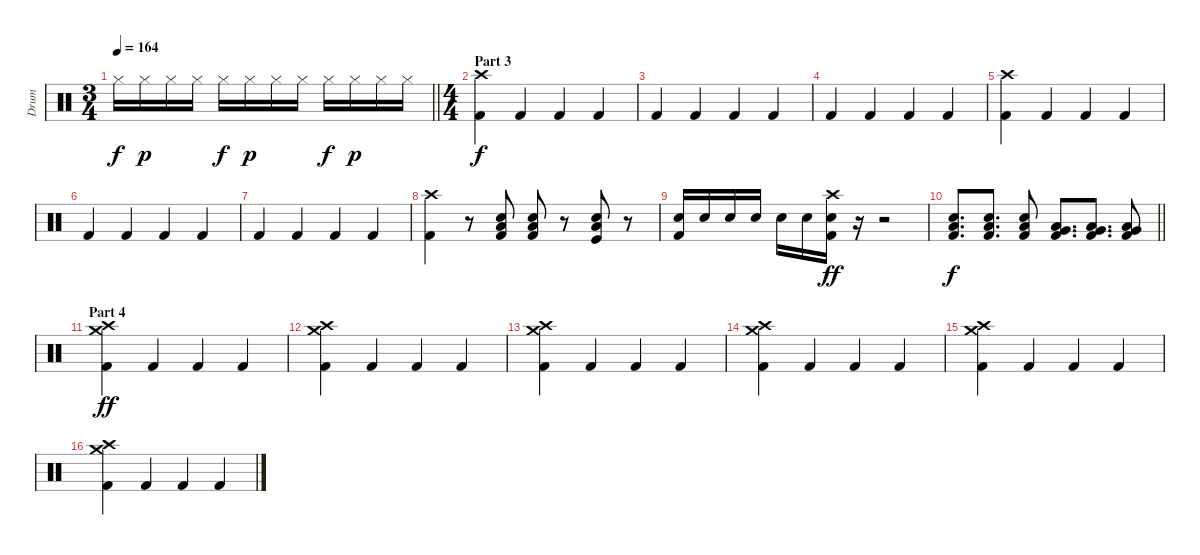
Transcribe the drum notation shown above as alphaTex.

\track ("Drum" "Drum") {instrument percussion}
\staff {score}
\articulation defaults
\ts (3 4)
\tempo 164
\clef neutral
\barLineRight lightlight
\ks c "Hi-Hat (closed)".16{dy f} "Hi-Hat (closed)".16{dy p} "Hi-Hat (closed)".16 "Hi-Hat (closed)".16 "Hi-Hat (closed)".16{dy f} "Hi-Hat (closed)".16{dy p} "Hi-Hat (closed)".16 "Hi-Hat (closed)".16 "Hi-Hat (closed)".16{dy f} "Hi-Hat (closed)".16{dy p} "Hi-Hat (closed)".16 "Hi-Hat (closed)".16
|
\ts (4 4)
\section ("" "Part 3")
("Crash high (hit)" "Kick (hit) 2").4{dy f} "Kick (hit) 2".4 "Kick (hit) 2".4 "Kick (hit) 2".4 |
"Kick (hit) 2".4 "Kick (hit) 2".4 "Kick (hit) 2".4 "Kick (hit) 2".4 |
"Kick (hit) 2".4 "Kick (hit) 2".4 "Kick (hit) 2".4 "Kick (hit) 2".4 |
("Crash high (hit)" "Kick (hit) 2").4 "Kick (hit) 2".4 "Kick (hit) 2".4 "Kick (hit) 2".4 |
"Kick (hit) 2".4 "Kick (hit) 2".4 "Kick (hit) 2".4 "Kick (hit) 2".4 |
"Kick (hit) 2".4 "Kick (hit) 2".4 "Kick (hit) 2".4 "Kick (hit) 2".4 |
("Crash high (hit)" "Kick (hit) 2").4 r.8 ("Low Tom (hit)" "Electric Snare (hit)" "Kick (hit) 2").8 ("Low Tom (hit)" "Electric Snare (hit)" "Kick (hit) 2").8 r.8 ("Low Tom (hit)" "Electric Snare (hit)" "Kick (hit)").8 r.8 |
("Electric Snare (hit)" "Kick (hit) 2").16 "Electric Snare (hit)".16 "Electric Snare (hit)".16 "Electric Snare (hit)".16 "Electric Snare (hit)".16 "Electric Snare (hit)".16 ("Crash high (hit)" "Electric Snare (hit)" "Kick (hit) 2").16{dy ff} r.16 r.2 |
\barLineRight lightlight
("Low Tom (hit)" "Electric Snare (hit)" "Kick (hit) 2").8{d dy f} ("Low Tom (hit)" "Electric Snare (hit)" "Kick (hit) 2").8{d} ("Low Tom (hit)" "Electric Snare (hit)" "Kick (hit) 2").8 ("Very Low Tom (hit)" "Low Tom (hit)" "Kick (hit) 2").8{d} ("Very Low Tom (hit)" "Low Tom (hit)" "Kick (hit) 2").8{d} ("Very Low Tom (hit)" "Low Tom (hit)" "Kick (hit) 2").8 |
\section ("" "Part 4")
("Crash high (hit)" "Crash medium (hit)" "Kick (hit) 2").4{dy ff} "Kick (hit) 2".4 "Kick (hit) 2".4 "Kick (hit) 2".4 |
("Crash high (hit)" "Crash medium (hit)" "Kick (hit) 2").4 "Kick (hit) 2".4 "Kick (hit) 2".4 "Kick (hit) 2".4 |
("Crash high (hit)" "Crash medium (hit)" "Kick (hit) 2").4 "Kick (hit) 2".4 "Kick (hit) 2".4 "Kick (hit) 2".4 |
("Crash high (hit)" "Crash medium (hit)" "Kick (hit) 2").4 "Kick (hit) 2".4 "Kick (hit) 2".4 "Kick (hit) 2".4 |
("Crash high (hit)" "Crash medium (hit)" "Kick (hit) 2").4 "Kick (hit) 2".4 "Kick (hit) 2".4 "Kick (hit) 2".4 |
("Crash high (hit)" "Crash medium (hit)" "Kick (hit) 2").4 "Kick (hit) 2".4 "Kick (hit) 2".4 "Kick (hit) 2".4
